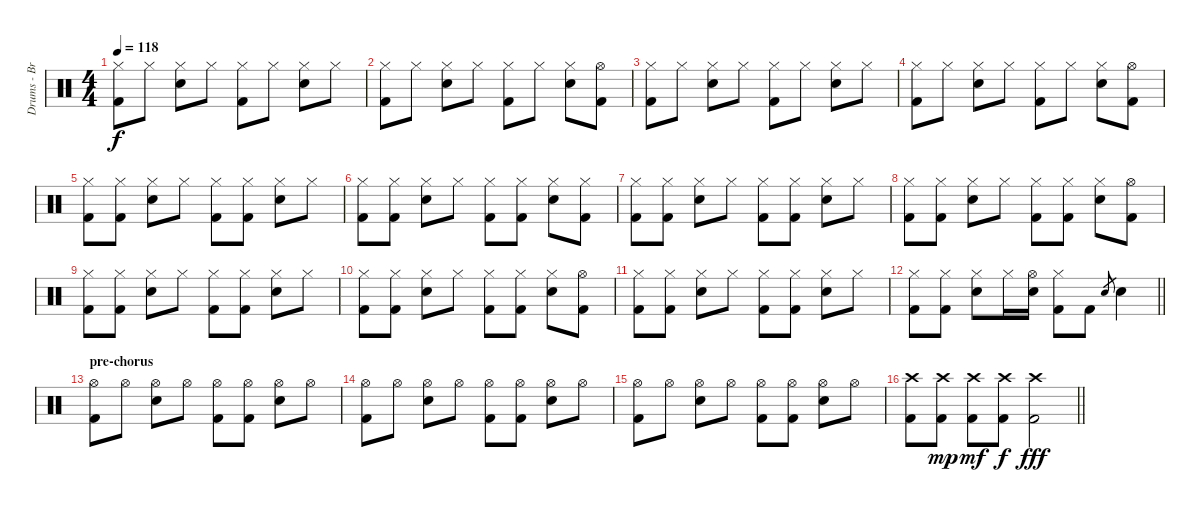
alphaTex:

\track ("Drums - Brian Young" "Drums - Br") {instrument percussion}
\staff {score}
\articulation defaults
\ts (4 4)
\tempo 118
\clef neutral
\ks c
("Hi-Hat (closed)" "Kick (hit) 2").8{dy f} "Hi-Hat (closed)".8 ("Hi-Hat (closed)" "Electric Snare (hit)").8 "Hi-Hat (closed)".8 ("Hi-Hat (closed)" "Kick (hit) 2").8 "Hi-Hat (closed)".8 ("Hi-Hat (closed)" "Electric Snare (hit)").8 "Hi-Hat (closed)".8 |
("Hi-Hat (closed)" "Kick (hit) 2").8 "Hi-Hat (closed)".8 ("Hi-Hat (closed)" "Electric Snare (hit)").8 "Hi-Hat (closed)".8 ("Hi-Hat (closed)" "Kick (hit) 2").8 "Hi-Hat (closed)".8 ("Hi-Hat (closed)" "Electric Snare (hit)").8 ("Hi-Hat (open)" "Kick (hit) 2").8 |
("Hi-Hat (closed)" "Kick (hit) 2").8 "Hi-Hat (closed)".8 ("Hi-Hat (closed)" "Electric Snare (hit)").8 "Hi-Hat (closed)".8 ("Hi-Hat (closed)" "Kick (hit) 2").8 "Hi-Hat (closed)".8 ("Hi-Hat (closed)" "Electric Snare (hit)").8 "Hi-Hat (closed)".8 |
("Hi-Hat (closed)" "Kick (hit) 2").8 "Hi-Hat (closed)".8 ("Hi-Hat (closed)" "Electric Snare (hit)").8 "Hi-Hat (closed)".8 ("Hi-Hat (closed)" "Kick (hit) 2").8 "Hi-Hat (closed)".8 ("Hi-Hat (closed)" "Electric Snare (hit)").8 ("Hi-Hat (open)" "Kick (hit) 2").8 |
("Hi-Hat (closed)" "Kick (hit) 2").8 ("Hi-Hat (closed)" "Kick (hit) 2").8 ("Hi-Hat (closed)" "Electric Snare (hit)").8 "Hi-Hat (closed)".8 ("Hi-Hat (closed)" "Kick (hit) 2").8 ("Hi-Hat (closed)" "Kick (hit) 2").8 ("Hi-Hat (closed)" "Electric Snare (hit)").8 "Hi-Hat (closed)".8 |
("Hi-Hat (closed)" "Kick (hit) 2").8 ("Hi-Hat (closed)" "Kick (hit) 2").8 ("Hi-Hat (closed)" "Electric Snare (hit)").8 "Hi-Hat (closed)".8 ("Hi-Hat (closed)" "Kick (hit) 2").8 ("Hi-Hat (closed)" "Kick (hit) 2").8 ("Hi-Hat (closed)" "Electric Snare (hit)").8 ("Hi-Hat (closed)" "Kick (hit) 2").8 |
("Hi-Hat (closed)" "Kick (hit) 2").8 ("Hi-Hat (closed)" "Kick (hit) 2").8 ("Hi-Hat (closed)" "Electric Snare (hit)").8 "Hi-Hat (closed)".8 ("Hi-Hat (closed)" "Kick (hit) 2").8 ("Hi-Hat (closed)" "Kick (hit) 2").8 ("Hi-Hat (closed)" "Electric Snare (hit)").8 "Hi-Hat (closed)".8 |
("Hi-Hat (closed)" "Kick (hit) 2").8 ("Hi-Hat (closed)" "Kick (hit) 2").8 ("Hi-Hat (closed)" "Electric Snare (hit)").8 "Hi-Hat (closed)".8 ("Hi-Hat (closed)" "Kick (hit) 2").8 ("Hi-Hat (closed)" "Kick (hit) 2").8 ("Hi-Hat (closed)" "Electric Snare (hit)").8 ("Hi-Hat (open)" "Kick (hit) 2").8 |
("Hi-Hat (closed)" "Kick (hit) 2").8 ("Hi-Hat (closed)" "Kick (hit) 2").8 ("Hi-Hat (closed)" "Electric Snare (hit)").8 "Hi-Hat (closed)".8 ("Hi-Hat (closed)" "Kick (hit) 2").8 ("Hi-Hat (closed)" "Kick (hit) 2").8 ("Hi-Hat (closed)" "Electric Snare (hit)").8 "Hi-Hat (closed)".8 |
("Hi-Hat (closed)" "Kick (hit) 2").8 ("Hi-Hat (closed)" "Kick (hit) 2").8 ("Hi-Hat (closed)" "Electric Snare (hit)").8 "Hi-Hat (closed)".8 ("Hi-Hat (closed)" "Kick (hit) 2").8 ("Hi-Hat (closed)" "Kick (hit) 2").8 ("Hi-Hat (closed)" "Electric Snare (hit)").8 ("Hi-Hat (open)" "Kick (hit) 2").8 |
("Hi-Hat (closed)" "Kick (hit) 2").8 ("Hi-Hat (closed)" "Kick (hit) 2").8 ("Hi-Hat (closed)" "Electric Snare (hit)").8 "Hi-Hat (closed)".8 ("Hi-Hat (closed)" "Kick (hit) 2").8 ("Hi-Hat (closed)" "Kick (hit) 2").8 ("Hi-Hat (closed)" "Electric Snare (hit)").8 "Hi-Hat (closed)".8 |
\barLineRight lightlight
("Hi-Hat (closed)" "Kick (hit) 2").8 ("Hi-Hat (closed)" "Kick (hit) 2").8 ("Hi-Hat (closed)" "Electric Snare (hit)").8 "Hi-Hat (closed)".16 ("Hi-Hat (open)" "Electric Snare (hit)").16 ("Hi-Hat (closed)" "Kick (hit) 2").8 "Kick (hit) 2".8 "Electric Snare (hit)".8{gr} "Electric Snare (hit)".4 |
\section ("" "pre-chorus")
("Hi-Hat (open)" "Kick (hit) 2").8 "Hi-Hat (open)".8 ("Hi-Hat (open)" "Electric Snare (hit)").8 "Hi-Hat (open)".8 ("Hi-Hat (open)" "Kick (hit) 2").8 ("Hi-Hat (open)" "Kick (hit) 2").8 ("Hi-Hat (open)" "Electric Snare (hit)").8 "Hi-Hat (open)".8 |
("Hi-Hat (open)" "Kick (hit) 2").8 "Hi-Hat (open)".8 ("Hi-Hat (open)" "Electric Snare (hit)").8 "Hi-Hat (open)".8 ("Hi-Hat (open)" "Kick (hit) 2").8 ("Hi-Hat (open)" "Kick (hit) 2").8 ("Hi-Hat (open)" "Electric Snare (hit)").8 "Hi-Hat (open)".8 |
("Hi-Hat (open)" "Kick (hit) 2").8 "Hi-Hat (open)".8 ("Hi-Hat (open)" "Electric Snare (hit)").8 "Hi-Hat (open)".8 ("Hi-Hat (open)" "Kick (hit) 2").8 ("Hi-Hat (open)" "Kick (hit) 2").8 ("Hi-Hat (open)" "Electric Snare (hit)").8 "Hi-Hat (open)".8 |
\barLineRight lightlight
("Crash high (hit)" "Kick (hit) 2").8 ("Crash high (hit)" "Kick (hit) 2").8{dy mp} ("Crash high (hit)" "Kick (hit) 2").8{dy mf} ("Crash high (hit)" "Kick (hit) 2").8{dy f} ("Crash high (hit)" "Kick (hit) 2").2{dy fff}
